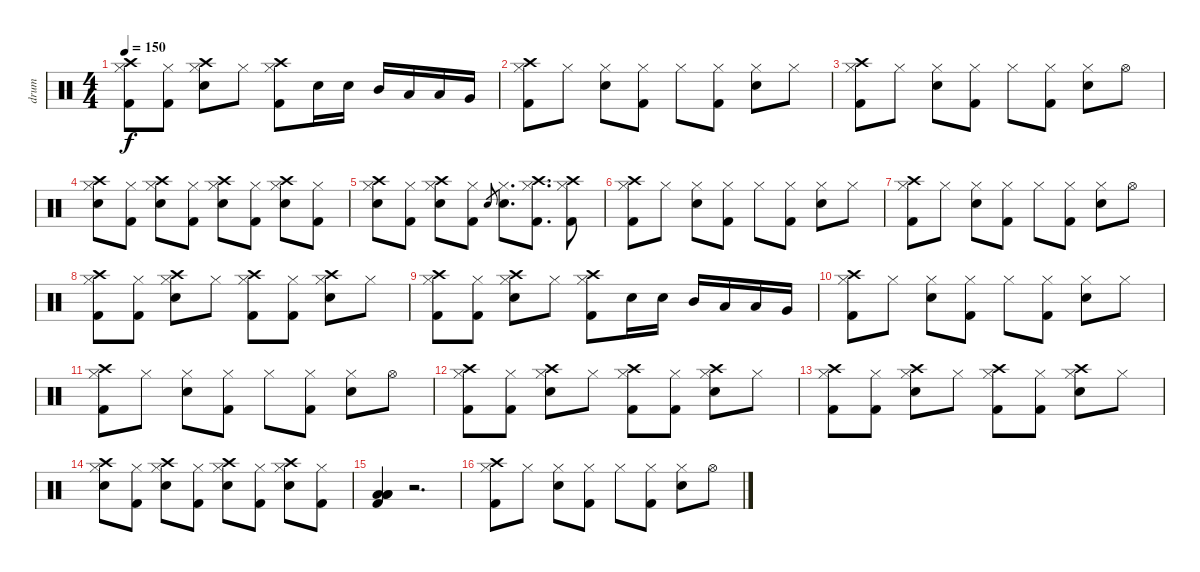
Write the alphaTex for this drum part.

\track ("drum" "drum") {instrument percussion}
\staff {score}
\articulation defaults
\ts (4 4)
\tempo 150
\clef neutral
\ks c
("Crash high (hit)" "Hi-Hat (closed)" "Kick (hit) 2").8{dy f} ("Hi-Hat (closed)" "Kick (hit) 2").8 ("Crash high (hit)" "Hi-Hat (closed)" "Electric Snare (hit)").8 "Hi-Hat (closed)".8 ("Crash high (hit)" "Hi-Hat (closed)" "Kick (hit) 2").8 "Electric Snare (hit)".16 "Electric Snare (hit)".16 "Mid Tom (hit)".16 "Low Tom (hit)".16 "Low Tom (hit)".16 "Very Low Tom (hit)".16 |
("Crash high (hit)" "Hi-Hat (closed)" "Kick (hit) 2").8 "Hi-Hat (closed)".8 ("Hi-Hat (closed)" "Electric Snare (hit)").8 ("Hi-Hat (closed)" "Kick (hit) 2").8 "Hi-Hat (closed)".8 ("Hi-Hat (closed)" "Kick (hit) 2").8 ("Hi-Hat (closed)" "Electric Snare (hit)").8 "Hi-Hat (closed)".8 |
("Crash high (hit)" "Hi-Hat (closed)" "Kick (hit) 2").8 "Hi-Hat (closed)".8 ("Hi-Hat (closed)" "Electric Snare (hit)").8 ("Hi-Hat (closed)" "Kick (hit) 2").8 "Hi-Hat (closed)".8 ("Hi-Hat (closed)" "Kick (hit) 2").8 ("Hi-Hat (closed)" "Electric Snare (hit)").8 "Hi-Hat (open)".8 |
("Crash high (hit)" "Hi-Hat (closed)" "Electric Snare (hit)").8 ("Hi-Hat (closed)" "Kick (hit) 2").8 ("Crash high (hit)" "Hi-Hat (closed)" "Electric Snare (hit)").8 ("Hi-Hat (closed)" "Kick (hit) 2").8 ("Crash high (hit)" "Hi-Hat (closed)" "Electric Snare (hit)").8 ("Hi-Hat (closed)" "Kick (hit) 2").8 ("Crash high (hit)" "Hi-Hat (closed)" "Electric Snare (hit)").8 ("Hi-Hat (closed)" "Kick (hit) 2").8 |
("Crash high (hit)" "Hi-Hat (closed)" "Electric Snare (hit)").8 ("Hi-Hat (closed)" "Kick (hit) 2").8 ("Crash high (hit)" "Hi-Hat (closed)" "Electric Snare (hit)").8 ("Hi-Hat (closed)" "Kick (hit) 2").8 "Electric Snare (hit)".8{gr} ("Hi-Hat (closed)" "Electric Snare (hit)").8{d} ("Crash high (hit)" "Hi-Hat (closed)" "Kick (hit) 2").8{d} ("Crash high (hit)" "Hi-Hat (closed)" "Kick (hit) 2").8 |
("Crash high (hit)" "Hi-Hat (closed)" "Kick (hit) 2").8 "Hi-Hat (closed)".8 ("Hi-Hat (closed)" "Electric Snare (hit)").8 ("Hi-Hat (closed)" "Kick (hit) 2").8 "Hi-Hat (closed)".8 ("Hi-Hat (closed)" "Kick (hit) 2").8 ("Hi-Hat (closed)" "Electric Snare (hit)").8 "Hi-Hat (closed)".8 |
("Crash high (hit)" "Hi-Hat (closed)" "Kick (hit) 2").8 "Hi-Hat (closed)".8 ("Hi-Hat (closed)" "Electric Snare (hit)").8 ("Hi-Hat (closed)" "Kick (hit) 2").8 "Hi-Hat (closed)".8 ("Hi-Hat (closed)" "Kick (hit) 2").8 ("Hi-Hat (closed)" "Electric Snare (hit)").8 "Hi-Hat (open)".8 |
("Crash high (hit)" "Hi-Hat (closed)" "Kick (hit) 2").8 ("Hi-Hat (closed)" "Kick (hit) 2").8 ("Crash high (hit)" "Hi-Hat (closed)" "Electric Snare (hit)").8 "Hi-Hat (closed)".8 ("Crash high (hit)" "Hi-Hat (closed)" "Kick (hit) 2").8 ("Hi-Hat (closed)" "Kick (hit) 2").8 ("Crash high (hit)" "Hi-Hat (closed)" "Electric Snare (hit)").8 "Hi-Hat (closed)".8 |
("Crash high (hit)" "Hi-Hat (closed)" "Kick (hit) 2").8 ("Hi-Hat (closed)" "Kick (hit) 2").8 ("Crash high (hit)" "Hi-Hat (closed)" "Electric Snare (hit)").8 "Hi-Hat (closed)".8 ("Crash high (hit)" "Hi-Hat (closed)" "Kick (hit) 2").8 "Electric Snare (hit)".16 "Electric Snare (hit)".16 "Mid Tom (hit)".16 "Low Tom (hit)".16 "Low Tom (hit)".16 "Very Low Tom (hit)".16 |
("Crash high (hit)" "Hi-Hat (closed)" "Kick (hit) 2").8 "Hi-Hat (closed)".8 ("Hi-Hat (closed)" "Electric Snare (hit)").8 ("Hi-Hat (closed)" "Kick (hit) 2").8 "Hi-Hat (closed)".8 ("Hi-Hat (closed)" "Kick (hit) 2").8 ("Hi-Hat (closed)" "Electric Snare (hit)").8 "Hi-Hat (closed)".8 |
("Crash high (hit)" "Hi-Hat (closed)" "Kick (hit) 2").8 "Hi-Hat (closed)".8 ("Hi-Hat (closed)" "Electric Snare (hit)").8 ("Hi-Hat (closed)" "Kick (hit) 2").8 "Hi-Hat (closed)".8 ("Hi-Hat (closed)" "Kick (hit) 2").8 ("Hi-Hat (closed)" "Electric Snare (hit)").8 "Hi-Hat (open)".8 |
("Crash high (hit)" "Hi-Hat (closed)" "Kick (hit) 2").8 ("Hi-Hat (closed)" "Kick (hit) 2").8 ("Crash high (hit)" "Hi-Hat (closed)" "Electric Snare (hit)").8 "Hi-Hat (closed)".8 ("Crash high (hit)" "Hi-Hat (closed)" "Kick (hit) 2").8 ("Hi-Hat (closed)" "Kick (hit) 2").8 ("Crash high (hit)" "Hi-Hat (closed)" "Electric Snare (hit)").8 "Hi-Hat (closed)".8 |
("Crash high (hit)" "Hi-Hat (closed)" "Kick (hit) 2").8 ("Hi-Hat (closed)" "Kick (hit) 2").8 ("Crash high (hit)" "Hi-Hat (closed)" "Electric Snare (hit)").8 "Hi-Hat (closed)".8 ("Crash high (hit)" "Hi-Hat (closed)" "Kick (hit) 2").8 ("Hi-Hat (closed)" "Kick (hit) 2").8 ("Crash high (hit)" "Hi-Hat (closed)" "Electric Snare (hit)").8 "Hi-Hat (closed)".8 |
("Crash high (hit)" "Hi-Hat (closed)" "Electric Snare (hit)").8 ("Hi-Hat (closed)" "Kick (hit) 2").8 ("Crash high (hit)" "Hi-Hat (closed)" "Electric Snare (hit)").8 ("Hi-Hat (closed)" "Kick (hit) 2").8 ("Crash high (hit)" "Hi-Hat (closed)" "Electric Snare (hit)").8 ("Hi-Hat (closed)" "Kick (hit) 2").8 ("Crash high (hit)" "Hi-Hat (closed)" "Electric Snare (hit)").8 ("Hi-Hat (closed)" "Kick (hit) 2").8 |
("Kick (hit) 2" "Low Floor Tom (hit)" "Low Floor Tom (hit)" "Low Floor Tom (hit)").4 r.2{d} |
("Crash high (hit)" "Hi-Hat (closed)" "Kick (hit) 2").8 "Hi-Hat (closed)".8 ("Hi-Hat (closed)" "Electric Snare (hit)").8 ("Hi-Hat (closed)" "Kick (hit) 2").8 "Hi-Hat (closed)".8 ("Hi-Hat (closed)" "Kick (hit) 2").8 ("Hi-Hat (closed)" "Electric Snare (hit)").8 "Hi-Hat (open)".8
